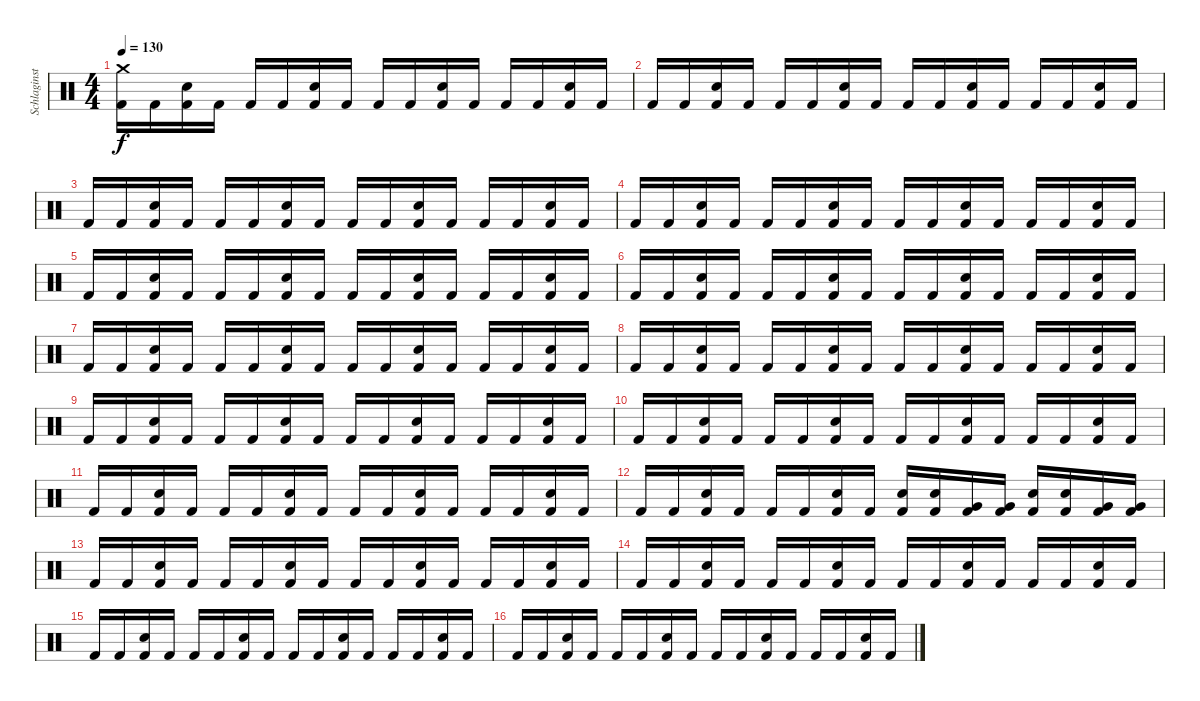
\track ("Schlaginstrumente - Auswahl" "Schlaginst") {instrument percussion}
\staff {score}
\articulation defaults
\ts (4 4)
\tempo 130
\clef neutral
\ks c
("Crash medium (hit)" "Kick (hit) 2").16{dy f} "Kick (hit) 2".16 ("Electric Snare (hit)" "Kick (hit) 2").16 "Kick (hit) 2".16 "Kick (hit) 2".16 "Kick (hit) 2".16 ("Electric Snare (hit)" "Kick (hit) 2").16 "Kick (hit) 2".16 "Kick (hit) 2".16 "Kick (hit) 2".16 ("Electric Snare (hit)" "Kick (hit) 2").16 "Kick (hit) 2".16 "Kick (hit) 2".16 "Kick (hit) 2".16 ("Electric Snare (hit)" "Kick (hit) 2").16 "Kick (hit) 2".16 |
"Kick (hit) 2".16 "Kick (hit) 2".16 ("Electric Snare (hit)" "Kick (hit) 2").16 "Kick (hit) 2".16 "Kick (hit) 2".16 "Kick (hit) 2".16 ("Electric Snare (hit)" "Kick (hit) 2").16 "Kick (hit) 2".16 "Kick (hit) 2".16 "Kick (hit) 2".16 ("Electric Snare (hit)" "Kick (hit) 2").16 "Kick (hit) 2".16 "Kick (hit) 2".16 "Kick (hit) 2".16 ("Electric Snare (hit)" "Kick (hit) 2").16 "Kick (hit) 2".16 |
"Kick (hit) 2".16 "Kick (hit) 2".16 ("Electric Snare (hit)" "Kick (hit) 2").16 "Kick (hit) 2".16 "Kick (hit) 2".16 "Kick (hit) 2".16 ("Electric Snare (hit)" "Kick (hit) 2").16 "Kick (hit) 2".16 "Kick (hit) 2".16 "Kick (hit) 2".16 ("Electric Snare (hit)" "Kick (hit) 2").16 "Kick (hit) 2".16 "Kick (hit) 2".16 "Kick (hit) 2".16 ("Electric Snare (hit)" "Kick (hit) 2").16 "Kick (hit) 2".16 |
"Kick (hit) 2".16 "Kick (hit) 2".16 ("Electric Snare (hit)" "Kick (hit) 2").16 "Kick (hit) 2".16 "Kick (hit) 2".16 "Kick (hit) 2".16 ("Electric Snare (hit)" "Kick (hit) 2").16 "Kick (hit) 2".16 "Kick (hit) 2".16 "Kick (hit) 2".16 ("Electric Snare (hit)" "Kick (hit) 2").16 "Kick (hit) 2".16 "Kick (hit) 2".16 "Kick (hit) 2".16 ("Electric Snare (hit)" "Kick (hit) 2").16 "Kick (hit) 2".16 |
"Kick (hit) 2".16 "Kick (hit) 2".16 ("Electric Snare (hit)" "Kick (hit) 2").16 "Kick (hit) 2".16 "Kick (hit) 2".16 "Kick (hit) 2".16 ("Electric Snare (hit)" "Kick (hit) 2").16 "Kick (hit) 2".16 "Kick (hit) 2".16 "Kick (hit) 2".16 ("Electric Snare (hit)" "Kick (hit) 2").16 "Kick (hit) 2".16 "Kick (hit) 2".16 "Kick (hit) 2".16 ("Electric Snare (hit)" "Kick (hit) 2").16 "Kick (hit) 2".16 |
"Kick (hit) 2".16 "Kick (hit) 2".16 ("Electric Snare (hit)" "Kick (hit) 2").16 "Kick (hit) 2".16 "Kick (hit) 2".16 "Kick (hit) 2".16 ("Electric Snare (hit)" "Kick (hit) 2").16 "Kick (hit) 2".16 "Kick (hit) 2".16 "Kick (hit) 2".16 ("Electric Snare (hit)" "Kick (hit) 2").16 "Kick (hit) 2".16 "Kick (hit) 2".16 "Kick (hit) 2".16 ("Electric Snare (hit)" "Kick (hit) 2").16 "Kick (hit) 2".16 |
"Kick (hit) 2".16 "Kick (hit) 2".16 ("Electric Snare (hit)" "Kick (hit) 2").16 "Kick (hit) 2".16 "Kick (hit) 2".16 "Kick (hit) 2".16 ("Electric Snare (hit)" "Kick (hit) 2").16 "Kick (hit) 2".16 "Kick (hit) 2".16 "Kick (hit) 2".16 ("Electric Snare (hit)" "Kick (hit) 2").16 "Kick (hit) 2".16 "Kick (hit) 2".16 "Kick (hit) 2".16 ("Electric Snare (hit)" "Kick (hit) 2").16 "Kick (hit) 2".16 |
"Kick (hit) 2".16 "Kick (hit) 2".16 ("Electric Snare (hit)" "Kick (hit) 2").16 "Kick (hit) 2".16 "Kick (hit) 2".16 "Kick (hit) 2".16 ("Electric Snare (hit)" "Kick (hit) 2").16 "Kick (hit) 2".16 "Kick (hit) 2".16 "Kick (hit) 2".16 ("Electric Snare (hit)" "Kick (hit) 2").16 "Kick (hit) 2".16 "Kick (hit) 2".16 "Kick (hit) 2".16 ("Electric Snare (hit)" "Kick (hit) 2").16 "Kick (hit) 2".16 |
"Kick (hit) 2".16 "Kick (hit) 2".16 ("Electric Snare (hit)" "Kick (hit) 2").16 "Kick (hit) 2".16 "Kick (hit) 2".16 "Kick (hit) 2".16 ("Electric Snare (hit)" "Kick (hit) 2").16 "Kick (hit) 2".16 "Kick (hit) 2".16 "Kick (hit) 2".16 ("Electric Snare (hit)" "Kick (hit) 2").16 "Kick (hit) 2".16 "Kick (hit) 2".16 "Kick (hit) 2".16 ("Electric Snare (hit)" "Kick (hit) 2").16 "Kick (hit) 2".16 |
"Kick (hit) 2".16 "Kick (hit) 2".16 ("Electric Snare (hit)" "Kick (hit) 2").16 "Kick (hit) 2".16 "Kick (hit) 2".16 "Kick (hit) 2".16 ("Electric Snare (hit)" "Kick (hit) 2").16 "Kick (hit) 2".16 "Kick (hit) 2".16 "Kick (hit) 2".16 ("Electric Snare (hit)" "Kick (hit) 2").16 "Kick (hit) 2".16 "Kick (hit) 2".16 "Kick (hit) 2".16 ("Electric Snare (hit)" "Kick (hit) 2").16 "Kick (hit) 2".16 |
"Kick (hit) 2".16 "Kick (hit) 2".16 ("Electric Snare (hit)" "Kick (hit) 2").16 "Kick (hit) 2".16 "Kick (hit) 2".16 "Kick (hit) 2".16 ("Electric Snare (hit)" "Kick (hit) 2").16 "Kick (hit) 2".16 "Kick (hit) 2".16 "Kick (hit) 2".16 ("Electric Snare (hit)" "Kick (hit) 2").16 "Kick (hit) 2".16 "Kick (hit) 2".16 "Kick (hit) 2".16 ("Electric Snare (hit)" "Kick (hit) 2").16 "Kick (hit) 2".16 |
"Kick (hit) 2".16 "Kick (hit) 2".16 ("Electric Snare (hit)" "Kick (hit) 2").16 "Kick (hit) 2".16 "Kick (hit) 2".16 "Kick (hit) 2".16 ("Electric Snare (hit)" "Kick (hit) 2").16 "Kick (hit) 2".16 ("Electric Snare (hit)" "Kick (hit) 2").16 ("Electric Snare (hit)" "Kick (hit) 2").16 ("Very Low Tom (hit)" "Kick (hit) 2").16 ("Very Low Tom (hit)" "Kick (hit) 2").16 ("Electric Snare (hit)" "Kick (hit) 2").16 ("Electric Snare (hit)" "Kick (hit) 2").16 ("Very Low Tom (hit)" "Kick (hit) 2").16 ("Very Low Tom (hit)" "Kick (hit) 2").16 |
"Kick (hit) 2".16 "Kick (hit) 2".16 ("Electric Snare (hit)" "Kick (hit) 2").16 "Kick (hit) 2".16 "Kick (hit) 2".16 "Kick (hit) 2".16 ("Electric Snare (hit)" "Kick (hit) 2").16 "Kick (hit) 2".16 "Kick (hit) 2".16 "Kick (hit) 2".16 ("Electric Snare (hit)" "Kick (hit) 2").16 "Kick (hit) 2".16 "Kick (hit) 2".16 "Kick (hit) 2".16 ("Electric Snare (hit)" "Kick (hit) 2").16 "Kick (hit) 2".16 |
"Kick (hit) 2".16 "Kick (hit) 2".16 ("Electric Snare (hit)" "Kick (hit) 2").16 "Kick (hit) 2".16 "Kick (hit) 2".16 "Kick (hit) 2".16 ("Electric Snare (hit)" "Kick (hit) 2").16 "Kick (hit) 2".16 "Kick (hit) 2".16 "Kick (hit) 2".16 ("Electric Snare (hit)" "Kick (hit) 2").16 "Kick (hit) 2".16 "Kick (hit) 2".16 "Kick (hit) 2".16 ("Electric Snare (hit)" "Kick (hit) 2").16 "Kick (hit) 2".16 |
"Kick (hit) 2".16 "Kick (hit) 2".16 ("Electric Snare (hit)" "Kick (hit) 2").16 "Kick (hit) 2".16 "Kick (hit) 2".16 "Kick (hit) 2".16 ("Electric Snare (hit)" "Kick (hit) 2").16 "Kick (hit) 2".16 "Kick (hit) 2".16 "Kick (hit) 2".16 ("Electric Snare (hit)" "Kick (hit) 2").16 "Kick (hit) 2".16 "Kick (hit) 2".16 "Kick (hit) 2".16 ("Electric Snare (hit)" "Kick (hit) 2").16 "Kick (hit) 2".16 |
"Kick (hit) 2".16 "Kick (hit) 2".16 ("Electric Snare (hit)" "Kick (hit) 2").16 "Kick (hit) 2".16 "Kick (hit) 2".16 "Kick (hit) 2".16 ("Electric Snare (hit)" "Kick (hit) 2").16 "Kick (hit) 2".16 "Kick (hit) 2".16 "Kick (hit) 2".16 ("Electric Snare (hit)" "Kick (hit) 2").16 "Kick (hit) 2".16 "Kick (hit) 2".16 "Kick (hit) 2".16 ("Electric Snare (hit)" "Kick (hit) 2").16 "Kick (hit) 2".16
